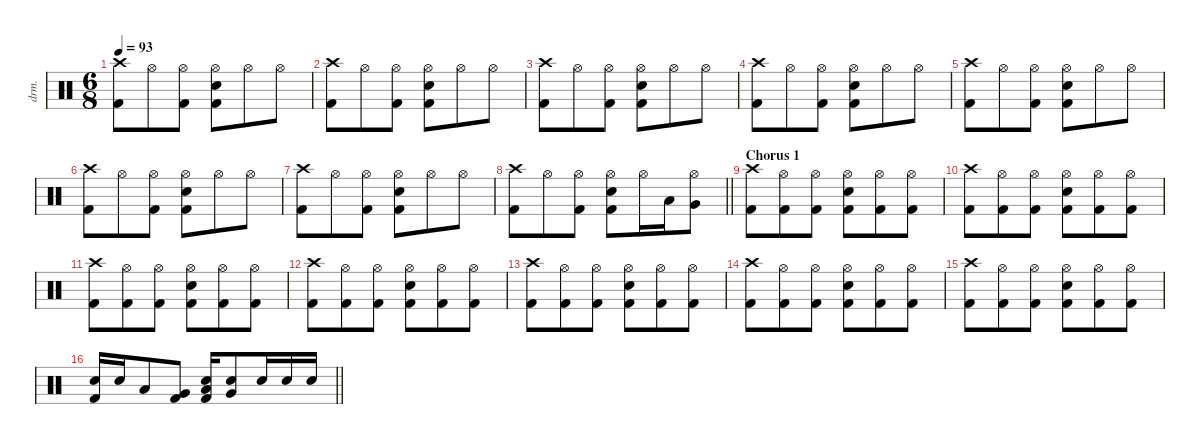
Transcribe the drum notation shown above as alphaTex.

\defaultSystemsLayout 4
\hideDynamics
\bracketExtendMode nobrackets
\otherSystemsTrackNameOrientation horizontal
\track ("Drums" "drm.") {instrument percussion}
\staff {score}
\articulation defaults
\ts (6 8)
\tempo 93
\clef neutral
\ks c
("Crash high (hit)" "Kick (hit) 2").8{dy f beam Down} "Hi-Hat (open)".8{beam Down} ("Hi-Hat (open)" "Kick (hit) 2").8{beam Down} ("Hi-Hat (open)" "Snare (hit) 2" "Kick (hit) 2").8{beam Down} "Hi-Hat (open)".8{beam Down} "Hi-Hat (open)".8{beam Down} |
("Crash high (hit)" "Kick (hit) 2").8{beam Down} "Hi-Hat (open)".8{beam Down} ("Hi-Hat (open)" "Kick (hit) 2").8{beam Down} ("Hi-Hat (open)" "Snare (hit) 2" "Kick (hit) 2").8{beam Down} "Hi-Hat (open)".8{beam Down} "Hi-Hat (open)".8{beam Down} |
("Crash high (hit)" "Kick (hit) 2").8{beam Down} "Hi-Hat (open)".8{beam Down} ("Hi-Hat (open)" "Kick (hit) 2").8{beam Down} ("Hi-Hat (open)" "Snare (hit) 2" "Kick (hit) 2").8{beam Down} "Hi-Hat (open)".8{beam Down} "Hi-Hat (open)".8{beam Down} |
("Crash high (hit)" "Kick (hit) 2").8{beam Down} "Hi-Hat (open)".8{beam Down} ("Hi-Hat (open)" "Kick (hit) 2").8{beam Down} ("Hi-Hat (open)" "Snare (hit) 2" "Kick (hit) 2").8{beam Down} "Hi-Hat (open)".8{beam Down} "Hi-Hat (open)".8{beam Down} |
("Crash high (hit)" "Kick (hit) 2").8{beam Down} "Hi-Hat (open)".8{beam Down} ("Hi-Hat (open)" "Kick (hit) 2").8{beam Down} ("Hi-Hat (open)" "Snare (hit) 2" "Kick (hit) 2").8{beam Down} "Hi-Hat (open)".8{beam Down} "Hi-Hat (open)".8{beam Down} |
("Crash high (hit)" "Kick (hit) 2").8{beam Down} "Hi-Hat (open)".8{beam Down} ("Hi-Hat (open)" "Kick (hit) 2").8{beam Down} ("Hi-Hat (open)" "Snare (hit) 2" "Kick (hit) 2").8{beam Down} "Hi-Hat (open)".8{beam Down} "Hi-Hat (open)".8{beam Down} |
("Crash high (hit)" "Kick (hit) 2").8{beam Down} "Hi-Hat (open)".8{beam Down} ("Hi-Hat (open)" "Kick (hit) 2").8{beam Down} ("Hi-Hat (open)" "Snare (hit) 2" "Kick (hit) 2").8{beam Down} "Hi-Hat (open)".8{beam Down} "Hi-Hat (open)".8{beam Down} |
\barLineRight lightlight
("Crash high (hit)" "Kick (hit) 2").8{beam Down} "Hi-Hat (open)".8{beam Down} ("Hi-Hat (open)" "Kick (hit) 2").8{beam Down} ("Hi-Hat (open)" "Snare (hit) 2" "Kick (hit) 2").8{beam Down} "Hi-Hat (open)".16{beam Down} "Low Floor Tom (hit)".16{beam Down} ("Hi-Hat (open)" "Very Low Tom (hit)").8{beam Down} |
\section ("" "Chorus 1")
("Crash high (hit)" "Kick (hit) 2").8{beam Down} ("Hi-Hat (open)" "Kick (hit) 2").8{beam Down} ("Hi-Hat (open)" "Kick (hit) 2").8{beam Down} ("Hi-Hat (open)" "Snare (hit) 2" "Kick (hit) 2").8{beam Down} ("Hi-Hat (open)" "Kick (hit) 2").8{beam Down} ("Hi-Hat (open)" "Kick (hit) 2").8{beam Down} |
("Crash high (hit)" "Kick (hit) 2").8{beam Down} ("Hi-Hat (open)" "Kick (hit) 2").8{beam Down} ("Hi-Hat (open)" "Kick (hit) 2").8{beam Down} ("Hi-Hat (open)" "Snare (hit) 2" "Kick (hit) 2").8{beam Down} ("Hi-Hat (open)" "Kick (hit) 2").8{beam Down} ("Hi-Hat (open)" "Kick (hit) 2").8{beam Down} |
("Crash high (hit)" "Kick (hit) 2").8{beam Down} ("Hi-Hat (open)" "Kick (hit) 2").8{beam Down} ("Hi-Hat (open)" "Kick (hit) 2").8{beam Down} ("Hi-Hat (open)" "Snare (hit) 2" "Kick (hit) 2").8{beam Down} ("Hi-Hat (open)" "Kick (hit) 2").8{beam Down} ("Hi-Hat (open)" "Kick (hit) 2").8{beam Down} |
("Crash high (hit)" "Kick (hit) 2").8{beam Down} ("Hi-Hat (open)" "Kick (hit) 2").8{beam Down} ("Hi-Hat (open)" "Kick (hit) 2").8{beam Down} ("Hi-Hat (open)" "Snare (hit) 2" "Kick (hit) 2").8{beam Down} ("Hi-Hat (open)" "Kick (hit) 2").8{beam Down} ("Hi-Hat (open)" "Kick (hit) 2").8{beam Down} |
("Crash high (hit)" "Kick (hit) 2").8{beam Down} ("Hi-Hat (open)" "Kick (hit) 2").8{beam Down} ("Hi-Hat (open)" "Kick (hit) 2").8{beam Down} ("Hi-Hat (open)" "Snare (hit) 2" "Kick (hit) 2").8{beam Down} ("Hi-Hat (open)" "Kick (hit) 2").8{beam Down} ("Hi-Hat (open)" "Kick (hit) 2").8{beam Down} |
("Crash high (hit)" "Kick (hit) 2").8{beam Down} ("Hi-Hat (open)" "Kick (hit) 2").8{beam Down} ("Hi-Hat (open)" "Kick (hit) 2").8{beam Down} ("Hi-Hat (open)" "Snare (hit) 2" "Kick (hit) 2").8{beam Down} ("Hi-Hat (open)" "Kick (hit) 2").8{beam Down} ("Hi-Hat (open)" "Kick (hit) 2").8{beam Down} |
("Crash high (hit)" "Kick (hit) 2").8{beam Down} ("Hi-Hat (open)" "Kick (hit) 2").8{beam Down} ("Hi-Hat (open)" "Kick (hit) 2").8{beam Down} ("Hi-Hat (open)" "Snare (hit) 2" "Kick (hit) 2").8{beam Down} ("Hi-Hat (open)" "Kick (hit) 2").8{beam Down} ("Hi-Hat (open)" "Kick (hit) 2").8{beam Down} |
\barLineRight lightlight
("Snare (hit) 2" "Kick (hit) 2").16{beam Up} "Snare (hit) 2".16{beam Up} "Low Floor Tom (hit)".8{beam Up} ("Very Low Tom (hit)" "Kick (hit) 2").8{beam Up} ("Snare (hit) 2" "Low Floor Tom (hit)" "Kick (hit) 2").16{beam Up} ("Snare (hit) 2" "Very Low Tom (hit)").8{beam Up} "Snare (hit) 2".16{beam Down} "Snare (hit) 2".16{beam Down} "Snare (hit) 2".16{beam Down}
